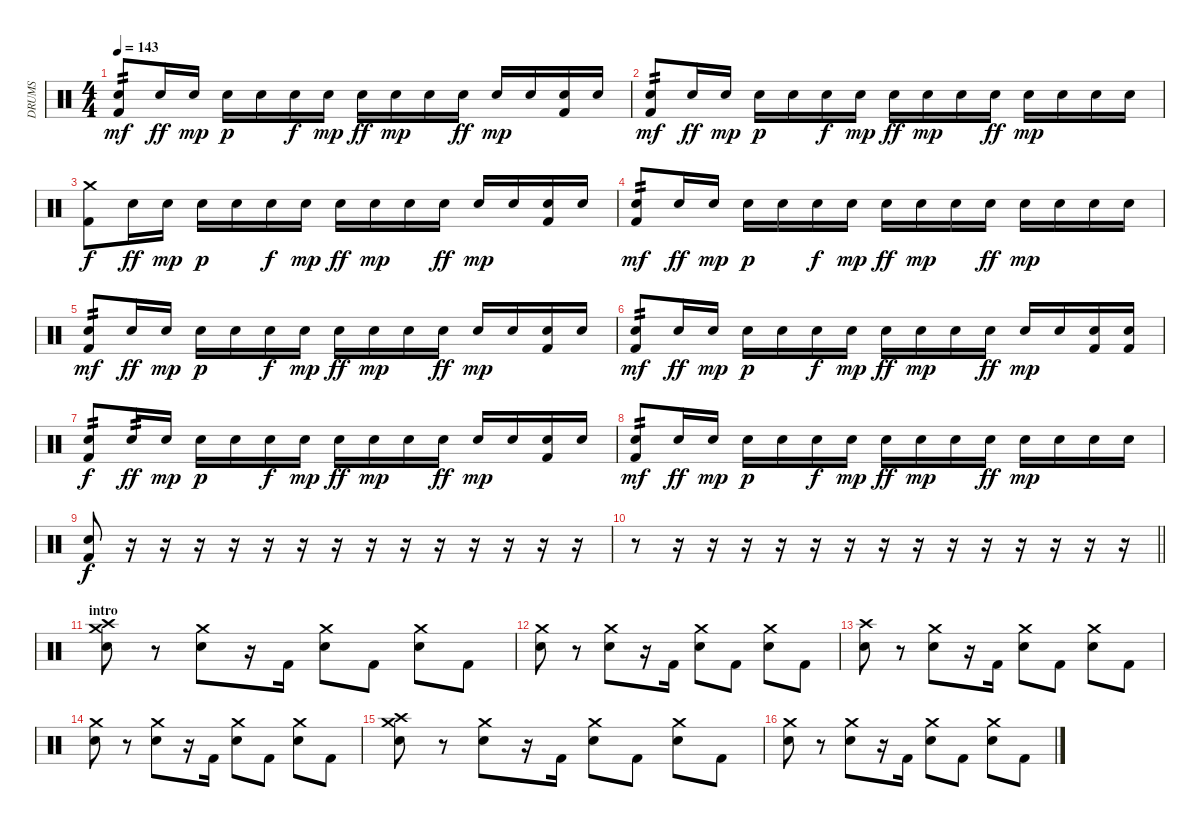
\track ("DRUMS" "DRUMS") {instrument percussion}
\staff {score}
\articulation defaults
\ts (4 4)
\tempo 143
\clef neutral
\ks c
("Electric Snare (hit)" "Kick (hit) 2").8{tp 2 dy mf} "Electric Snare (hit)".16{dy ff} "Electric Snare (hit)".16{dy mp} "Electric Snare (hit)".16{dy p} "Electric Snare (hit)".16 "Electric Snare (hit)".16{dy f} "Electric Snare (hit)".16{dy mp} "Electric Snare (hit)".16{dy ff} "Electric Snare (hit)".16{dy mp} "Electric Snare (hit)".16 "Electric Snare (hit)".16{dy ff} "Electric Snare (hit)".16{dy mp} "Electric Snare (hit)".16 ("Electric Snare (hit)" "Kick (hit) 2").16 "Electric Snare (hit)".16 |
("Electric Snare (hit)" "Kick (hit) 2").8{tp 2 dy mf} "Electric Snare (hit)".16{dy ff} "Electric Snare (hit)".16{dy mp} "Electric Snare (hit)".16{dy p} "Electric Snare (hit)".16 "Electric Snare (hit)".16{dy f} "Electric Snare (hit)".16{dy mp} "Electric Snare (hit)".16{dy ff} "Electric Snare (hit)".16{dy mp} "Electric Snare (hit)".16 "Electric Snare (hit)".16{dy ff} "Electric Snare (hit)".16{dy mp} "Electric Snare (hit)".16 "Electric Snare (hit)".16 "Electric Snare (hit)".16 |
("Crash medium (hit)" "Kick (hit) 2").8{dy f} "Electric Snare (hit)".16{dy ff} "Electric Snare (hit)".16{dy mp} "Electric Snare (hit)".16{dy p} "Electric Snare (hit)".16 "Electric Snare (hit)".16{dy f} "Electric Snare (hit)".16{dy mp} "Electric Snare (hit)".16{dy ff} "Electric Snare (hit)".16{dy mp} "Electric Snare (hit)".16 "Electric Snare (hit)".16{dy ff} "Electric Snare (hit)".16{dy mp} "Electric Snare (hit)".16 ("Electric Snare (hit)" "Kick (hit) 2").16 "Electric Snare (hit)".16 |
("Electric Snare (hit)" "Kick (hit) 2").8{tp 2 dy mf} "Electric Snare (hit)".16{dy ff} "Electric Snare (hit)".16{dy mp} "Electric Snare (hit)".16{dy p} "Electric Snare (hit)".16 "Electric Snare (hit)".16{dy f} "Electric Snare (hit)".16{dy mp} "Electric Snare (hit)".16{dy ff} "Electric Snare (hit)".16{dy mp} "Electric Snare (hit)".16 "Electric Snare (hit)".16{dy ff} "Electric Snare (hit)".16{dy mp} "Electric Snare (hit)".16 "Electric Snare (hit)".16 "Electric Snare (hit)".16 |
("Electric Snare (hit)" "Kick (hit) 2").8{tp 2 dy mf} "Electric Snare (hit)".16{dy ff} "Electric Snare (hit)".16{dy mp} "Electric Snare (hit)".16{dy p} "Electric Snare (hit)".16 "Electric Snare (hit)".16{dy f} "Electric Snare (hit)".16{dy mp} "Electric Snare (hit)".16{dy ff} "Electric Snare (hit)".16{dy mp} "Electric Snare (hit)".16 "Electric Snare (hit)".16{dy ff} "Electric Snare (hit)".16{dy mp} "Electric Snare (hit)".16 ("Electric Snare (hit)" "Kick (hit) 2").16 "Electric Snare (hit)".16 |
("Electric Snare (hit)" "Kick (hit) 2").8{tp 2 dy mf} "Electric Snare (hit)".16{dy ff} "Electric Snare (hit)".16{dy mp} "Electric Snare (hit)".16{dy p} "Electric Snare (hit)".16 "Electric Snare (hit)".16{dy f} "Electric Snare (hit)".16{dy mp} "Electric Snare (hit)".16{dy ff} "Electric Snare (hit)".16{dy mp} "Electric Snare (hit)".16 "Electric Snare (hit)".16{dy ff} "Electric Snare (hit)".16{dy mp} "Electric Snare (hit)".16 ("Electric Snare (hit)" "Kick (hit) 2").16 ("Electric Snare (hit)" "Kick (hit) 2").16 |
("Electric Snare (hit)" "Kick (hit) 2").8{tp 2 dy f} "Electric Snare (hit)".16{tp 2 dy ff} "Electric Snare (hit)".16{dy mp} "Electric Snare (hit)".16{dy p} "Electric Snare (hit)".16 "Electric Snare (hit)".16{dy f} "Electric Snare (hit)".16{dy mp} "Electric Snare (hit)".16{dy ff} "Electric Snare (hit)".16{dy mp} "Electric Snare (hit)".16 "Electric Snare (hit)".16{dy ff} "Electric Snare (hit)".16{dy mp} "Electric Snare (hit)".16 ("Electric Snare (hit)" "Kick (hit) 2").16 "Electric Snare (hit)".16 |
("Electric Snare (hit)" "Kick (hit) 2").8{tp 2 dy mf} "Electric Snare (hit)".16{dy ff} "Electric Snare (hit)".16{dy mp} "Electric Snare (hit)".16{dy p} "Electric Snare (hit)".16 "Electric Snare (hit)".16{dy f} "Electric Snare (hit)".16{dy mp} "Electric Snare (hit)".16{dy ff} "Electric Snare (hit)".16{dy mp} "Electric Snare (hit)".16 "Electric Snare (hit)".16{dy ff} "Electric Snare (hit)".16{dy mp} "Electric Snare (hit)".16 "Electric Snare (hit)".16 "Electric Snare (hit)".16 |
("Electric Snare (hit)" "Kick (hit) 2").8{dy f} r.16 r.16 r.16 r.16 r.16 r.16 r.16 r.16 r.16 r.16 r.16 r.16 r.16 r.16 |
\barLineRight lightlight
r.8 r.16 r.16 r.16 r.16 r.16 r.16 r.16 r.16 r.16 r.16 r.16 r.16 r.16 r.16 |
\section ("" "intro")
("Crash medium (hit)" "Crash high (hit)" "Electric Snare (hit)").8 r.8 ("Crash medium (hit)" "Electric Snare (hit)").8 r.16 "Kick (hit) 2".16 ("Crash medium (hit)" "Electric Snare (hit)").8 "Kick (hit) 2".8 ("Crash medium (hit)" "Electric Snare (hit)").8 "Kick (hit) 2".8 |
("Crash medium (hit)" "Electric Snare (hit)").8 r.8 ("Crash medium (hit)" "Electric Snare (hit)").8 r.16 "Kick (hit) 2".16 ("Crash medium (hit)" "Electric Snare (hit)").8 "Kick (hit) 2".8 ("Crash medium (hit)" "Electric Snare (hit)").8 "Kick (hit) 2".8 |
("Crash high (hit)" "Electric Snare (hit)").8 r.8 ("Crash medium (hit)" "Electric Snare (hit)").8 r.16 "Kick (hit) 2".16 ("Crash medium (hit)" "Electric Snare (hit)").8 "Kick (hit) 2".8 ("Crash medium (hit)" "Electric Snare (hit)").8 "Kick (hit) 2".8 |
("Crash medium (hit)" "Electric Snare (hit)").8 r.8 ("Crash medium (hit)" "Electric Snare (hit)").8 r.16 "Kick (hit) 2".16 ("Crash medium (hit)" "Electric Snare (hit)").8 "Kick (hit) 2".8 ("Crash medium (hit)" "Electric Snare (hit)").8 "Kick (hit) 2".8 |
("Crash medium (hit)" "Crash high (hit)" "Electric Snare (hit)").8 r.8 ("Crash medium (hit)" "Electric Snare (hit)").8 r.16 "Kick (hit) 2".16 ("Crash medium (hit)" "Electric Snare (hit)").8 "Kick (hit) 2".8 ("Crash medium (hit)" "Electric Snare (hit)").8 "Kick (hit) 2".8 |
("Crash medium (hit)" "Electric Snare (hit)").8 r.8 ("Crash medium (hit)" "Electric Snare (hit)").8 r.16 "Kick (hit) 2".16 ("Crash medium (hit)" "Electric Snare (hit)").8 "Kick (hit) 2".8 ("Crash medium (hit)" "Electric Snare (hit)").8 "Kick (hit) 2".8
